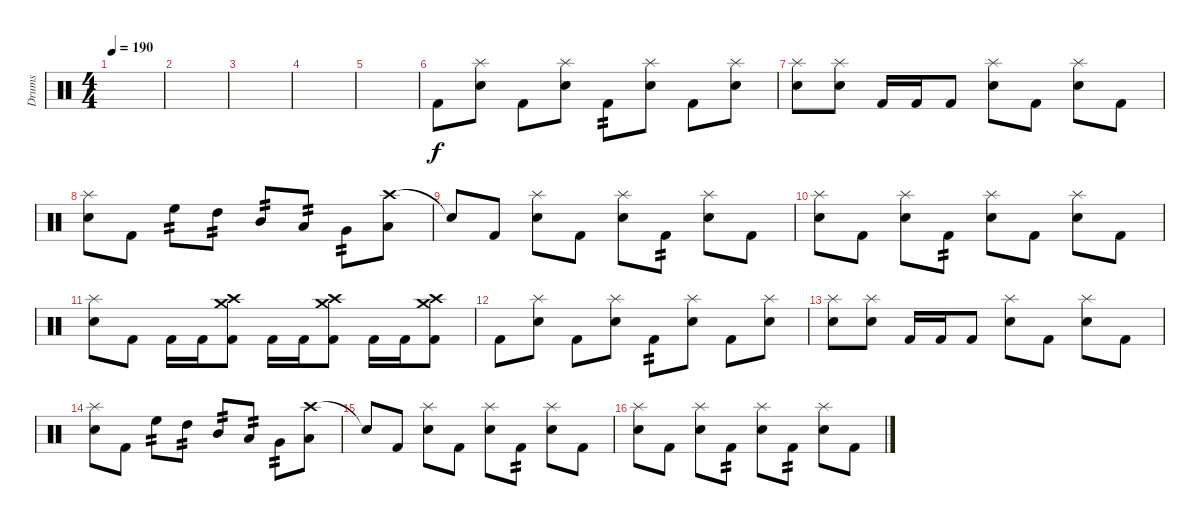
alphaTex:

\track ("Drums" "Drums") {instrument percussion}
\staff {score}
\articulation defaults
\ts (4 4)
\tempo 190
\clef neutral
\ks c
|
|
|
|
|
"Kick (hit) 2".8{volume 16} ("Splash (hit)" "Snare (hit) 2").8 "Kick (hit) 2".8 ("Splash (hit)" "Snare (hit) 2").8 "Kick (hit) 2".8{tp 2} ("Splash (hit)" "Snare (hit) 2").8 "Kick (hit) 2".8 ("Splash (hit)" "Snare (hit) 2").8 |
("Splash (hit)" "Snare (hit) 2").8 ("Splash (hit)" "Snare (hit) 2").8 "Kick (hit) 2".16 "Kick (hit) 2".16 "Kick (hit) 2".8 ("Splash (hit)" "Snare (hit) 2").8 "Kick (hit) 2".8 ("Splash (hit)" "Snare (hit) 2").8 "Kick (hit) 2".8 |
("Splash (hit)" "Snare (hit) 2").8 "Kick (hit) 2".8 "High Floor Tom (hit)".8{tp 2} "High Tom (hit)".8{tp 2} "Mid Tom (hit)".8{tp 2} "Low Tom (hit)".8{tp 2} "Very Low Tom (hit)".8{tp 2} ("Crash high (hit)" "Low Floor Tom (hit)").8 |
"Snare (hit)"{t}.8 "Kick (hit) 2".8 ("Splash (hit)" "Snare (hit) 2").8 "Kick (hit) 2".8 ("Splash (hit)" "Snare (hit) 2").8 "Kick (hit) 2".8{tp 2} ("Splash (hit)" "Snare (hit) 2").8 "Kick (hit) 2".8 |
("Splash (hit)" "Snare (hit) 2").8 "Kick (hit) 2".8 ("Splash (hit)" "Snare (hit) 2").8 "Kick (hit) 2".8{tp 2} ("Splash (hit)" "Snare (hit) 2").8 "Kick (hit) 2".8 ("Splash (hit)" "Snare (hit) 2").8 "Kick (hit) 2".8 |
("Splash (hit)" "Snare (hit) 2").8 "Kick (hit) 2".8 "Kick (hit) 2".16 "Kick (hit) 2".16 ("Crash medium (hit)" "Crash high (hit)" "Kick (hit) 2").8 "Kick (hit) 2".16 "Kick (hit) 2".16 ("Crash medium (hit)" "Crash high (hit)" "Kick (hit) 2").8 "Kick (hit) 2".16 "Kick (hit) 2".16 ("Crash medium (hit)" "Crash high (hit)" "Kick (hit) 2").8 |
"Kick (hit) 2".8 ("Splash (hit)" "Snare (hit) 2").8 "Kick (hit) 2".8 ("Splash (hit)" "Snare (hit) 2").8 "Kick (hit) 2".8{tp 2} ("Splash (hit)" "Snare (hit) 2").8 "Kick (hit) 2".8 ("Splash (hit)" "Snare (hit) 2").8 |
("Splash (hit)" "Snare (hit) 2").8 ("Splash (hit)" "Snare (hit) 2").8 "Kick (hit) 2".16 "Kick (hit) 2".16 "Kick (hit) 2".8 ("Splash (hit)" "Snare (hit) 2").8 "Kick (hit) 2".8 ("Splash (hit)" "Snare (hit) 2").8 "Kick (hit) 2".8 |
("Splash (hit)" "Snare (hit) 2").8 "Kick (hit) 2".8 "High Floor Tom (hit)".8{tp 2} "High Tom (hit)".8{tp 2} "Mid Tom (hit)".8{tp 2} "Low Tom (hit)".8{tp 2} "Very Low Tom (hit)".8{tp 2} ("Crash high (hit)" "Low Floor Tom (hit)").8 |
"Snare (hit)"{t}.8 "Kick (hit) 2".8 ("Splash (hit)" "Snare (hit) 2").8 "Kick (hit) 2".8 ("Splash (hit)" "Snare (hit) 2").8 "Kick (hit) 2".8{tp 2} ("Splash (hit)" "Snare (hit) 2").8 "Kick (hit) 2".8 |
("Splash (hit)" "Snare (hit) 2").8 "Kick (hit) 2".8 ("Splash (hit)" "Snare (hit) 2").8 "Kick (hit) 2".8{tp 2} ("Splash (hit)" "Snare (hit) 2").8 "Kick (hit) 2".8{tp 2} ("Splash (hit)" "Snare (hit) 2").8 "Kick (hit) 2".8
